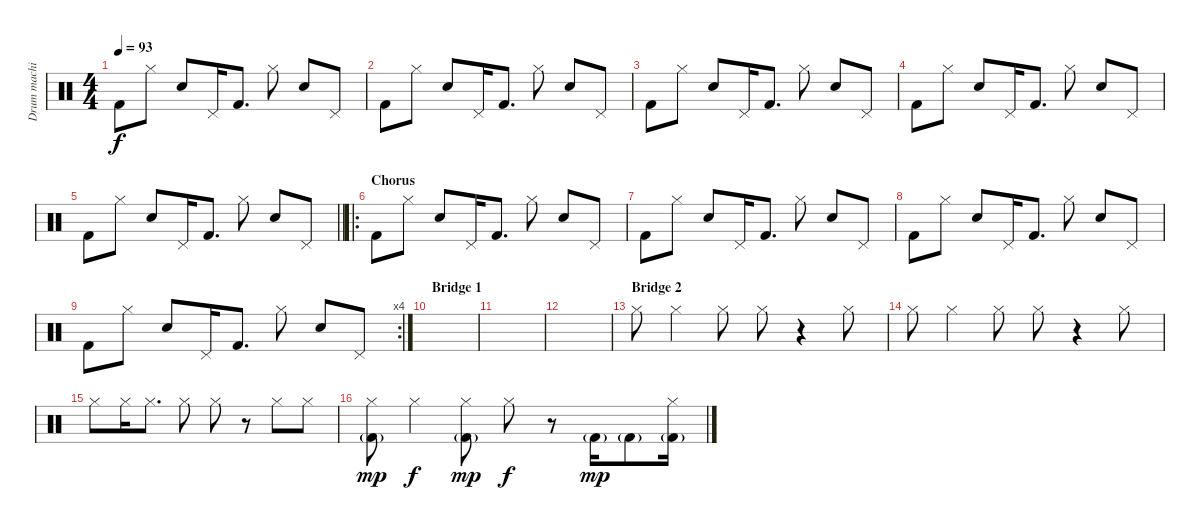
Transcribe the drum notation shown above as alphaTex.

\track ("Drum machine" "Drum machi") {instrument percussion}
\staff {score}
\articulation defaults
\ts (4 4)
\tempo 93
\clef neutral
\ks c "Kick (hit) 2".8{dy f} "Hi-Hat (closed)".8 "Snare (hit) 2".8 "Pedal Hi-Hat (hit)".16 "Kick (hit) 2".8{d} "Hi-Hat (closed)".8 "Snare (hit) 2".8 "Pedal Hi-Hat (hit)".8
|
"Kick (hit) 2".8 "Hi-Hat (closed)".8 "Snare (hit) 2".8 "Pedal Hi-Hat (hit)".16 "Kick (hit) 2".8{d} "Hi-Hat (closed)".8 "Snare (hit) 2".8 "Pedal Hi-Hat (hit)".8 |
"Kick (hit) 2".8 "Hi-Hat (closed)".8 "Snare (hit) 2".8 "Pedal Hi-Hat (hit)".16 "Kick (hit) 2".8{d} "Hi-Hat (closed)".8 "Snare (hit) 2".8 "Pedal Hi-Hat (hit)".8 |
"Kick (hit) 2".8 "Hi-Hat (closed)".8 "Snare (hit) 2".8 "Pedal Hi-Hat (hit)".16 "Kick (hit) 2".8{d} "Hi-Hat (closed)".8 "Snare (hit) 2".8 "Pedal Hi-Hat (hit)".8 |
\barLineRight lightlight "Kick (hit) 2".8 "Hi-Hat (closed)".8 "Snare (hit) 2".8 "Pedal Hi-Hat (hit)".16 "Kick (hit) 2".8{d} "Hi-Hat (closed)".8 "Snare (hit) 2".8 "Pedal Hi-Hat (hit)".8
|
\ro
\section ("" "Chorus")
"Kick (hit) 2".8 "Hi-Hat (closed)".8 "Snare (hit) 2".8 "Pedal Hi-Hat (hit)".16 "Kick (hit) 2".8{d} "Hi-Hat (closed)".8 "Snare (hit) 2".8 "Pedal Hi-Hat (hit)".8 |
"Kick (hit) 2".8 "Hi-Hat (closed)".8 "Snare (hit) 2".8 "Pedal Hi-Hat (hit)".16 "Kick (hit) 2".8{d} "Hi-Hat (closed)".8 "Snare (hit) 2".8 "Pedal Hi-Hat (hit)".8 |
"Kick (hit) 2".8 "Hi-Hat (closed)".8 "Snare (hit) 2".8 "Pedal Hi-Hat (hit)".16 "Kick (hit) 2".8{d} "Hi-Hat (closed)".8 "Snare (hit) 2".8 "Pedal Hi-Hat (hit)".8 |
\rc 4 "Kick (hit) 2".8 "Hi-Hat (closed)".8 "Snare (hit) 2".8 "Pedal Hi-Hat (hit)".16 "Kick (hit) 2".8{d} "Hi-Hat (closed)".8 "Snare (hit) 2".8 "Pedal Hi-Hat (hit)".8
|
\section ("" "Bridge 1")
|
|
|
\section ("" "Bridge 2")
"Hi-Hat (closed)".8 "Hi-Hat (closed)".4 "Hi-Hat (closed)".8 "Hi-Hat (closed)".8 r.4 "Hi-Hat (closed)".8 |
"Hi-Hat (closed)".8 "Hi-Hat (closed)".4 "Hi-Hat (closed)".8 "Hi-Hat (closed)".8 r.4 "Hi-Hat (closed)".8 |
"Hi-Hat (closed)".8 "Hi-Hat (closed)".16 "Hi-Hat (closed)".8{d} "Hi-Hat (closed)".8 "Hi-Hat (closed)".8 r.8 "Hi-Hat (closed)".8 "Hi-Hat (closed)".8 |
("Hi-Hat (closed)" "Kick (hit) 2"{g}).8{dy mp} "Hi-Hat (closed)".4{dy f} ("Hi-Hat (closed)" "Kick (hit) 2"{g}).8{dy mp} "Hi-Hat (closed)".8{dy f} r.8 "Kick (hit) 2"{g}.16{dy mp} "Kick (hit) 2"{g}.8 ("Hi-Hat (closed)" "Kick (hit) 2"{g}).16
